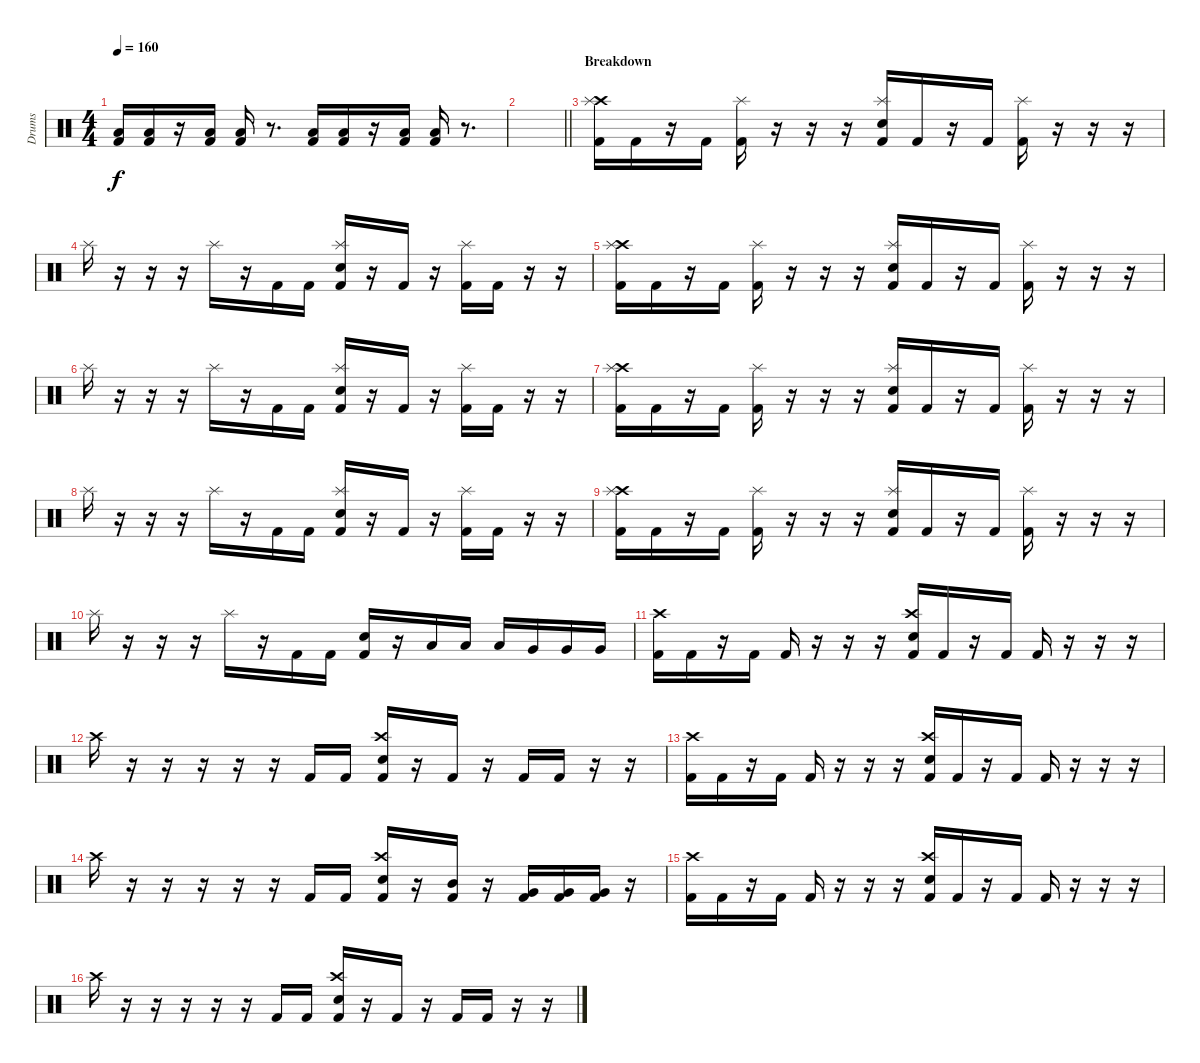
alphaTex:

\track ("Drums" "Drums") {instrument percussion}
\staff {score}
\articulation defaults
\ts (4 4)
\tempo 160
\clef neutral
\ks c
("Low Tom (hit)" "Kick (hit) 2").16{dy f} ("Low Tom (hit)" "Kick (hit) 2").16 r.16 ("Low Tom (hit)" "Kick (hit) 2").16 ("Low Tom (hit)" "Kick (hit) 2").16 r.8{d} ("Low Tom (hit)" "Kick (hit) 2").16 ("Low Tom (hit)" "Kick (hit) 2").16 r.16 ("Low Tom (hit)" "Kick (hit) 2").16 ("Low Tom (hit)" "Kick (hit) 2").16 r.8{d} |
\barLineRight lightlight
|
\section ("" "Breakdown")
("Crash high (hit)" "Splash (hit)" "Kick (hit) 2").16 "Kick (hit) 2".16 r.16 "Kick (hit) 2".16 ("Splash (hit)" "Kick (hit) 2").16 r.16 r.16 r.16 ("Splash (hit)" "Electric Snare (hit)" "Kick (hit) 2").16 "Kick (hit) 2".16 r.16 "Kick (hit) 2".16 ("Splash (hit)" "Kick (hit) 2").16 r.16 r.16 r.16 |
"Splash (hit)".16 r.16 r.16 r.16 "Splash (hit)".16 r.16 "Kick (hit) 2".16 "Kick (hit) 2".16 ("Splash (hit)" "Electric Snare (hit)" "Kick (hit) 2").16 r.16 "Kick (hit) 2".16 r.16 ("Splash (hit)" "Kick (hit) 2").16 "Kick (hit) 2".16 r.16 r.16 |
("Crash high (hit)" "Splash (hit)" "Kick (hit) 2").16 "Kick (hit) 2".16 r.16 "Kick (hit) 2".16 ("Splash (hit)" "Kick (hit) 2").16 r.16 r.16 r.16 ("Splash (hit)" "Electric Snare (hit)" "Kick (hit) 2").16 "Kick (hit) 2".16 r.16 "Kick (hit) 2".16 ("Splash (hit)" "Kick (hit) 2").16 r.16 r.16 r.16 |
"Splash (hit)".16 r.16 r.16 r.16 "Splash (hit)".16 r.16 "Kick (hit) 2".16 "Kick (hit) 2".16 ("Splash (hit)" "Electric Snare (hit)" "Kick (hit) 2").16 r.16 "Kick (hit) 2".16 r.16 ("Splash (hit)" "Kick (hit) 2").16 "Kick (hit) 2".16 r.16 r.16 |
("Crash high (hit)" "Splash (hit)" "Kick (hit) 2").16 "Kick (hit) 2".16 r.16 "Kick (hit) 2".16 ("Splash (hit)" "Kick (hit) 2").16 r.16 r.16 r.16 ("Splash (hit)" "Electric Snare (hit)" "Kick (hit) 2").16 "Kick (hit) 2".16 r.16 "Kick (hit) 2".16 ("Splash (hit)" "Kick (hit) 2").16 r.16 r.16 r.16 |
"Splash (hit)".16 r.16 r.16 r.16 "Splash (hit)".16 r.16 "Kick (hit) 2".16 "Kick (hit) 2".16 ("Splash (hit)" "Electric Snare (hit)" "Kick (hit) 2").16 r.16 "Kick (hit) 2".16 r.16 ("Splash (hit)" "Kick (hit) 2").16 "Kick (hit) 2".16 r.16 r.16 |
("Crash high (hit)" "Splash (hit)" "Kick (hit) 2").16 "Kick (hit) 2".16 r.16 "Kick (hit) 2".16 ("Splash (hit)" "Kick (hit) 2").16 r.16 r.16 r.16 ("Splash (hit)" "Electric Snare (hit)" "Kick (hit) 2").16 "Kick (hit) 2".16 r.16 "Kick (hit) 2".16 ("Splash (hit)" "Kick (hit) 2").16 r.16 r.16 r.16 |
"Splash (hit)".16 r.16 r.16 r.16 "Splash (hit)".16 r.16 "Kick (hit) 2".16 "Kick (hit) 2".16 ("Electric Snare (hit)" "Kick (hit) 2").16 r.16 "Low Tom (hit)".16 "Low Tom (hit)".16 "Low Tom (hit)".16 "Very Low Tom (hit)".16 "Very Low Tom (hit)".16 "Very Low Tom (hit)".16 |
("Crash high (hit)" "Kick (hit) 2").16 "Kick (hit) 2".16 r.16 "Kick (hit) 2".16 "Kick (hit) 2".16 r.16 r.16 r.16 ("Crash high (hit)" "Electric Snare (hit)" "Kick (hit) 2").16 "Kick (hit) 2".16 r.16 "Kick (hit) 2".16 "Kick (hit) 2".16 r.16 r.16 r.16 |
"Crash high (hit)".16 r.16 r.16 r.16 r.16 r.16 "Kick (hit) 2".16 "Kick (hit) 2".16 ("Crash high (hit)" "Electric Snare (hit)" "Kick (hit) 2").16 r.16 "Kick (hit) 2".16 r.16 "Kick (hit) 2".16 "Kick (hit) 2".16 r.16 r.16 |
("Crash high (hit)" "Kick (hit) 2").16 "Kick (hit) 2".16 r.16 "Kick (hit) 2".16 "Kick (hit) 2".16 r.16 r.16 r.16 ("Crash high (hit)" "Electric Snare (hit)" "Kick (hit) 2").16 "Kick (hit) 2".16 r.16 "Kick (hit) 2".16 "Kick (hit) 2".16 r.16 r.16 r.16 |
"Crash high (hit)".16 r.16 r.16 r.16 r.16 r.16 "Kick (hit) 2".16 "Kick (hit) 2".16 ("Crash high (hit)" "Electric Snare (hit)" "Kick (hit) 2").16 r.16 ("Mid Tom (hit)" "Kick (hit) 2").16 r.16 ("Very Low Tom (hit)" "Kick (hit) 2").16 ("Very Low Tom (hit)" "Kick (hit) 2").16 ("Very Low Tom (hit)" "Kick (hit) 2").16 r.16 |
("Crash high (hit)" "Kick (hit) 2").16 "Kick (hit) 2".16 r.16 "Kick (hit) 2".16 "Kick (hit) 2".16 r.16 r.16 r.16 ("Crash high (hit)" "Electric Snare (hit)" "Kick (hit) 2").16 "Kick (hit) 2".16 r.16 "Kick (hit) 2".16 "Kick (hit) 2".16 r.16 r.16 r.16 |
"Crash high (hit)".16 r.16 r.16 r.16 r.16 r.16 "Kick (hit) 2".16 "Kick (hit) 2".16 ("Crash high (hit)" "Electric Snare (hit)" "Kick (hit) 2").16 r.16 "Kick (hit) 2".16 r.16 "Kick (hit) 2".16 "Kick (hit) 2".16 r.16 r.16
